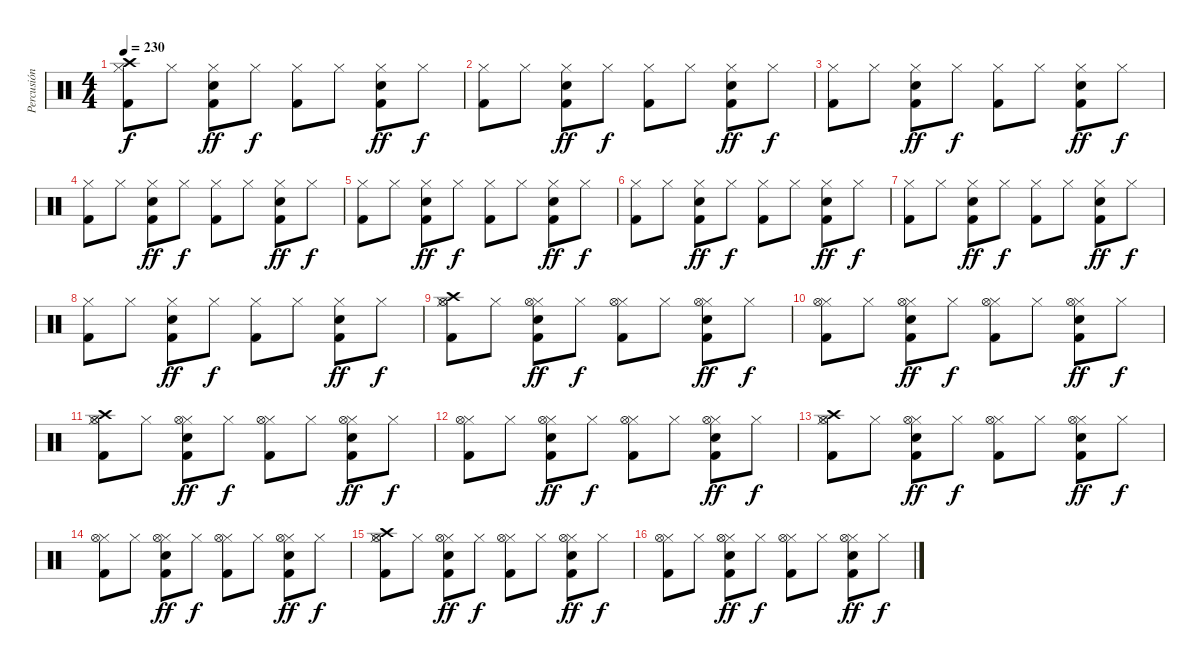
\track ("Percusión" "Percusión") {instrument percussion}
\staff {score}
\articulation defaults
\ts (4 4)
\tempo 230
\clef neutral
\ks c
("Crash high (hit)" "Hi-Hat (closed)" "Kick (hit) 2").8{dy f} "Hi-Hat (closed)".8 ("Hi-Hat (closed)" "Snare (hit) 2" "Kick (hit) 2").8{dy ff} "Hi-Hat (closed)".8{dy f} ("Hi-Hat (closed)" "Kick (hit) 2").8 "Hi-Hat (closed)".8 ("Hi-Hat (closed)" "Snare (hit) 2" "Kick (hit) 2").8{dy ff} "Hi-Hat (closed)".8{dy f} |
("Hi-Hat (closed)" "Kick (hit) 2").8 "Hi-Hat (closed)".8 ("Hi-Hat (closed)" "Snare (hit) 2" "Kick (hit) 2").8{dy ff} "Hi-Hat (closed)".8{dy f} ("Hi-Hat (closed)" "Kick (hit) 2").8 "Hi-Hat (closed)".8 ("Hi-Hat (closed)" "Snare (hit) 2" "Kick (hit) 2").8{dy ff} "Hi-Hat (closed)".8{dy f} |
("Hi-Hat (closed)" "Kick (hit) 2").8 "Hi-Hat (closed)".8 ("Hi-Hat (closed)" "Snare (hit) 2" "Kick (hit) 2").8{dy ff} "Hi-Hat (closed)".8{dy f} ("Hi-Hat (closed)" "Kick (hit) 2").8 "Hi-Hat (closed)".8 ("Hi-Hat (closed)" "Snare (hit) 2" "Kick (hit) 2").8{dy ff} "Hi-Hat (closed)".8{dy f} |
("Hi-Hat (closed)" "Kick (hit) 2").8 "Hi-Hat (closed)".8 ("Hi-Hat (closed)" "Snare (hit) 2" "Kick (hit) 2").8{dy ff} "Hi-Hat (closed)".8{dy f} ("Hi-Hat (closed)" "Kick (hit) 2").8 "Hi-Hat (closed)".8 ("Hi-Hat (closed)" "Snare (hit) 2" "Kick (hit) 2").8{dy ff} "Hi-Hat (closed)".8{dy f} |
("Hi-Hat (closed)" "Kick (hit) 2").8 "Hi-Hat (closed)".8 ("Hi-Hat (closed)" "Snare (hit) 2" "Kick (hit) 2").8{dy ff} "Hi-Hat (closed)".8{dy f} ("Hi-Hat (closed)" "Kick (hit) 2").8 "Hi-Hat (closed)".8 ("Hi-Hat (closed)" "Snare (hit) 2" "Kick (hit) 2").8{dy ff} "Hi-Hat (closed)".8{dy f} |
("Hi-Hat (closed)" "Kick (hit) 2").8 "Hi-Hat (closed)".8 ("Hi-Hat (closed)" "Snare (hit) 2" "Kick (hit) 2").8{dy ff} "Hi-Hat (closed)".8{dy f} ("Hi-Hat (closed)" "Kick (hit) 2").8 "Hi-Hat (closed)".8 ("Hi-Hat (closed)" "Snare (hit) 2" "Kick (hit) 2").8{dy ff} "Hi-Hat (closed)".8{dy f} |
("Hi-Hat (closed)" "Kick (hit) 2").8 "Hi-Hat (closed)".8 ("Hi-Hat (closed)" "Snare (hit) 2" "Kick (hit) 2").8{dy ff} "Hi-Hat (closed)".8{dy f} ("Hi-Hat (closed)" "Kick (hit) 2").8 "Hi-Hat (closed)".8 ("Hi-Hat (closed)" "Snare (hit) 2" "Kick (hit) 2").8{dy ff} "Hi-Hat (closed)".8{dy f} |
("Hi-Hat (closed)" "Kick (hit) 2").8 "Hi-Hat (closed)".8 ("Hi-Hat (closed)" "Snare (hit) 2" "Kick (hit) 2").8{dy ff} "Hi-Hat (closed)".8{dy f} ("Hi-Hat (closed)" "Kick (hit) 2").8 "Hi-Hat (closed)".8 ("Hi-Hat (closed)" "Snare (hit) 2" "Kick (hit) 2").8{dy ff} "Hi-Hat (closed)".8{dy f} |
("Crash high (hit)" "Hi-Hat (closed)" "Kick (hit) 2" "Hi-Hat (open)").8 "Hi-Hat (closed)".8 ("Hi-Hat (closed)" "Snare (hit) 2" "Kick (hit) 2" "Hi-Hat (open)").8{dy ff} "Hi-Hat (closed)".8{dy f} ("Hi-Hat (closed)" "Kick (hit) 2" "Hi-Hat (open)").8 "Hi-Hat (closed)".8 ("Hi-Hat (closed)" "Snare (hit) 2" "Kick (hit) 2" "Hi-Hat (open)").8{dy ff} "Hi-Hat (closed)".8{dy f} |
("Hi-Hat (closed)" "Kick (hit) 2" "Hi-Hat (open)").8 "Hi-Hat (closed)".8 ("Hi-Hat (closed)" "Snare (hit) 2" "Kick (hit) 2" "Hi-Hat (open)").8{dy ff} "Hi-Hat (closed)".8{dy f} ("Hi-Hat (closed)" "Kick (hit) 2" "Hi-Hat (open)").8 "Hi-Hat (closed)".8 ("Hi-Hat (closed)" "Snare (hit) 2" "Kick (hit) 2" "Hi-Hat (open)").8{dy ff} "Hi-Hat (closed)".8{dy f} |
("Crash high (hit)" "Hi-Hat (closed)" "Kick (hit) 2" "Hi-Hat (open)").8 "Hi-Hat (closed)".8 ("Hi-Hat (closed)" "Snare (hit) 2" "Kick (hit) 2" "Hi-Hat (open)").8{dy ff} "Hi-Hat (closed)".8{dy f} ("Hi-Hat (closed)" "Kick (hit) 2" "Hi-Hat (open)").8 "Hi-Hat (closed)".8 ("Hi-Hat (closed)" "Snare (hit) 2" "Kick (hit) 2" "Hi-Hat (open)").8{dy ff} "Hi-Hat (closed)".8{dy f} |
("Hi-Hat (closed)" "Kick (hit) 2" "Hi-Hat (open)").8 "Hi-Hat (closed)".8 ("Hi-Hat (closed)" "Snare (hit) 2" "Kick (hit) 2" "Hi-Hat (open)").8{dy ff} "Hi-Hat (closed)".8{dy f} ("Hi-Hat (closed)" "Kick (hit) 2" "Hi-Hat (open)").8 "Hi-Hat (closed)".8 ("Hi-Hat (closed)" "Snare (hit) 2" "Kick (hit) 2" "Hi-Hat (open)").8{dy ff} "Hi-Hat (closed)".8{dy f} |
("Crash high (hit)" "Hi-Hat (closed)" "Kick (hit) 2" "Hi-Hat (open)").8 "Hi-Hat (closed)".8 ("Hi-Hat (closed)" "Snare (hit) 2" "Kick (hit) 2" "Hi-Hat (open)").8{dy ff} "Hi-Hat (closed)".8{dy f} ("Hi-Hat (closed)" "Kick (hit) 2" "Hi-Hat (open)").8 "Hi-Hat (closed)".8 ("Hi-Hat (closed)" "Snare (hit) 2" "Kick (hit) 2" "Hi-Hat (open)").8{dy ff} "Hi-Hat (closed)".8{dy f} |
("Hi-Hat (closed)" "Kick (hit) 2" "Hi-Hat (open)").8 "Hi-Hat (closed)".8 ("Hi-Hat (closed)" "Snare (hit) 2" "Kick (hit) 2" "Hi-Hat (open)").8{dy ff} "Hi-Hat (closed)".8{dy f} ("Hi-Hat (closed)" "Kick (hit) 2" "Hi-Hat (open)").8 "Hi-Hat (closed)".8 ("Hi-Hat (closed)" "Snare (hit) 2" "Kick (hit) 2" "Hi-Hat (open)").8{dy ff} "Hi-Hat (closed)".8{dy f} |
("Crash high (hit)" "Hi-Hat (closed)" "Kick (hit) 2" "Hi-Hat (open)").8 "Hi-Hat (closed)".8 ("Hi-Hat (closed)" "Snare (hit) 2" "Kick (hit) 2" "Hi-Hat (open)").8{dy ff} "Hi-Hat (closed)".8{dy f} ("Hi-Hat (closed)" "Kick (hit) 2" "Hi-Hat (open)").8 "Hi-Hat (closed)".8 ("Hi-Hat (closed)" "Snare (hit) 2" "Kick (hit) 2" "Hi-Hat (open)").8{dy ff} "Hi-Hat (closed)".8{dy f} |
("Hi-Hat (closed)" "Kick (hit) 2" "Hi-Hat (open)").8 "Hi-Hat (closed)".8 ("Hi-Hat (closed)" "Snare (hit) 2" "Kick (hit) 2" "Hi-Hat (open)").8{dy ff} "Hi-Hat (closed)".8{dy f} ("Hi-Hat (closed)" "Kick (hit) 2" "Hi-Hat (open)").8 "Hi-Hat (closed)".8 ("Hi-Hat (closed)" "Snare (hit) 2" "Kick (hit) 2" "Hi-Hat (open)").8{dy ff} "Hi-Hat (closed)".8{dy f}
